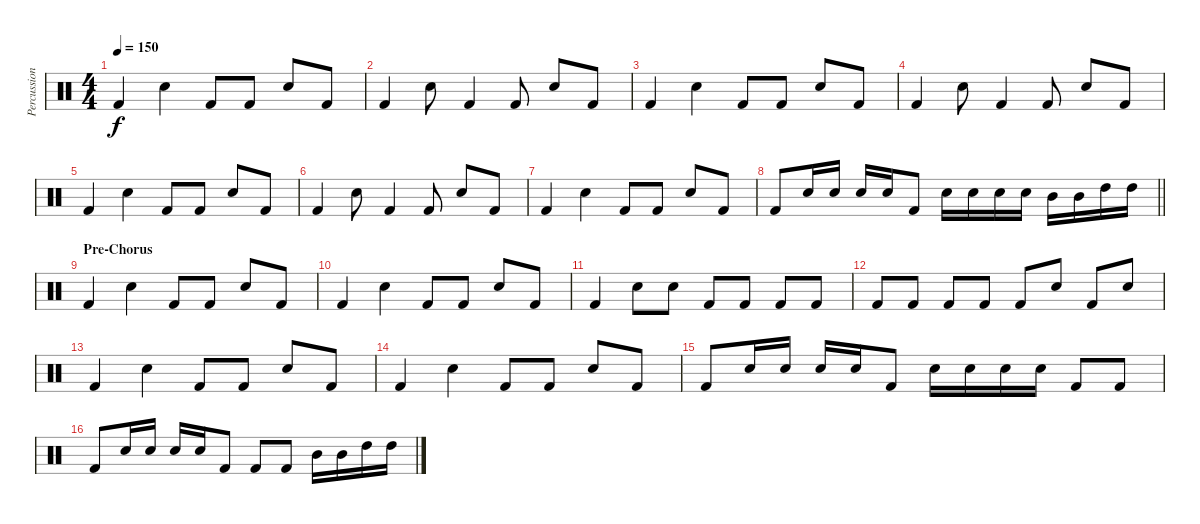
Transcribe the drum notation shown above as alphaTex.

\track ("Percussion" "Percussion") {instrument percussion}
\staff {score}
\articulation defaults
\ts (4 4)
\tempo 150
\clef neutral
\ks c "Kick (hit) 2".4{dy f} "Snare (hit) 2".4 "Kick (hit) 2".8 "Kick (hit) 2".8 "Snare (hit) 2".8 "Kick (hit) 2".8
|
"Kick (hit) 2".4 "Snare (hit) 2".8 "Kick (hit) 2".4 "Kick (hit) 2".8 "Snare (hit) 2".8 "Kick (hit) 2".8 |
"Kick (hit) 2".4 "Snare (hit) 2".4 "Kick (hit) 2".8 "Kick (hit) 2".8 "Snare (hit) 2".8 "Kick (hit) 2".8 |
"Kick (hit) 2".4 "Snare (hit) 2".8 "Kick (hit) 2".4 "Kick (hit) 2".8 "Snare (hit) 2".8 "Kick (hit) 2".8 |
"Kick (hit) 2".4 "Snare (hit) 2".4 "Kick (hit) 2".8 "Kick (hit) 2".8 "Snare (hit) 2".8 "Kick (hit) 2".8 |
"Kick (hit) 2".4 "Snare (hit) 2".8 "Kick (hit) 2".4 "Kick (hit) 2".8 "Snare (hit) 2".8 "Kick (hit) 2".8 |
"Kick (hit) 2".4 "Snare (hit) 2".4 "Kick (hit) 2".8 "Kick (hit) 2".8 "Snare (hit) 2".8 "Kick (hit) 2".8 |
\barLineRight lightlight "Kick (hit) 2".8 "Snare (hit) 2".16 "Snare (hit) 2".16 "Snare (hit) 2".16 "Snare (hit) 2".16 "Kick (hit) 2".8 "Snare (hit) 2".16 "Snare (hit) 2".16 "Snare (hit) 2".16 "Snare (hit) 2".16 "Mid Tom (hit)".16 "Mid Tom (hit)".16 "High Tom (hit)".16 "High Tom (hit)".16
|
\section ("" "Pre-Chorus")
"Kick (hit) 2".4 "Snare (hit) 2".4 "Kick (hit) 2".8 "Kick (hit) 2".8 "Snare (hit) 2".8 "Kick (hit) 2".8 |
"Kick (hit) 2".4 "Snare (hit) 2".4 "Kick (hit) 2".8 "Kick (hit) 2".8 "Snare (hit) 2".8 "Kick (hit) 2".8 |
"Kick (hit) 2".4 "Snare (hit) 2".8 "Snare (hit) 2".8 "Kick (hit) 2".8 "Kick (hit) 2".8 "Kick (hit) 2".8 "Kick (hit) 2".8 |
"Kick (hit) 2".8 "Kick (hit) 2".8 "Kick (hit) 2".8 "Kick (hit) 2".8 "Kick (hit) 2".8 "Snare (hit) 2".8 "Kick (hit) 2".8 "Snare (hit) 2".8 |
"Kick (hit) 2".4 "Snare (hit) 2".4 "Kick (hit) 2".8 "Kick (hit) 2".8 "Snare (hit) 2".8 "Kick (hit) 2".8 |
"Kick (hit) 2".4 "Snare (hit) 2".4 "Kick (hit) 2".8 "Kick (hit) 2".8 "Snare (hit) 2".8 "Kick (hit) 2".8 |
"Kick (hit) 2".8 "Snare (hit) 2".16 "Snare (hit) 2".16 "Snare (hit) 2".16 "Snare (hit) 2".16 "Kick (hit) 2".8 "Snare (hit) 2".16 "Snare (hit) 2".16 "Snare (hit) 2".16 "Snare (hit) 2".16 "Kick (hit) 2".8 "Kick (hit) 2".8 |
"Kick (hit) 2".8 "Snare (hit) 2".16 "Snare (hit) 2".16 "Snare (hit) 2".16 "Snare (hit) 2".16 "Kick (hit) 2".8 "Kick (hit) 2".8 "Kick (hit) 2".8 "Mid Tom (hit)".16 "Mid Tom (hit)".16 "High Tom (hit)".16 "High Tom (hit)".16
